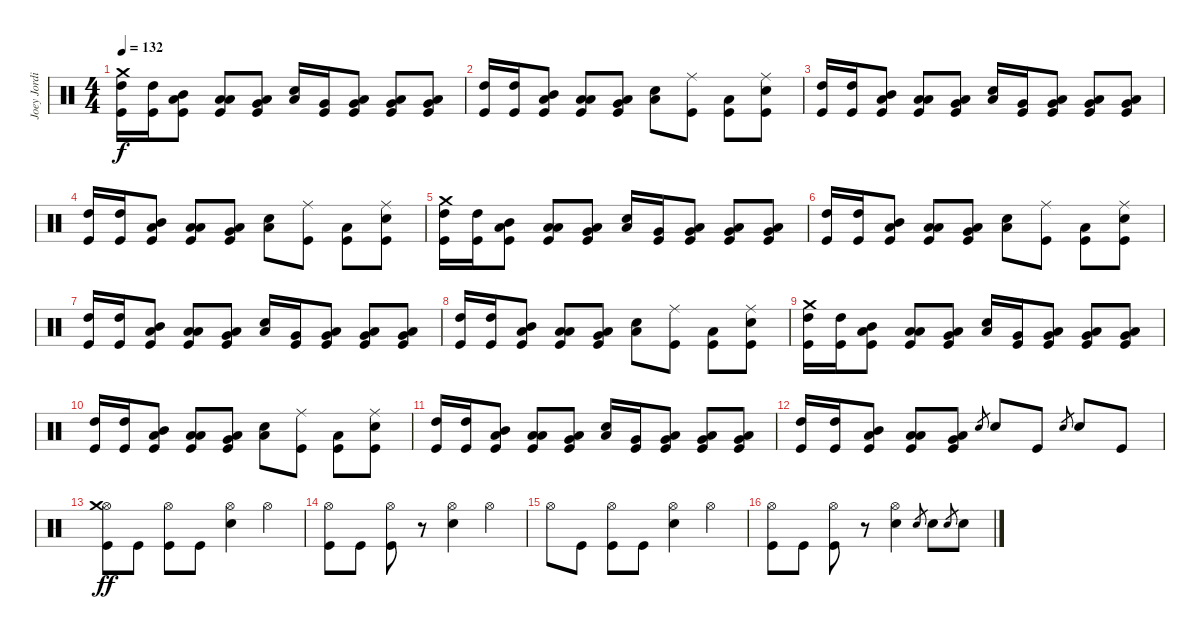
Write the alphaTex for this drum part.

\track ("Joey Jordison" "Joey Jordi") {instrument percussion}
\staff {score}
\articulation defaults
\ts (4 4)
\tempo 132
\clef neutral
\ks c
("Kick (hit)" "High Tom (hit)" "Crash medium (hit)").16{dy f} ("Kick (hit)" "High Tom (hit)").16 ("Kick (hit)" "Low Floor Tom (hit)" "Mid Tom (hit)").8 ("Kick (hit)" "Low Floor Tom (hit)" "Low Tom (hit)").8 ("Kick (hit)" "Low Floor Tom (hit)" "Very Low Tom (hit)").8 ("Snare (hit) 2" "Low Floor Tom (hit)").16 ("Kick (hit)" "Very Low Tom (hit)").16 ("Kick (hit)" "Low Floor Tom (hit)" "Very Low Tom (hit)").8 ("Kick (hit)" "Low Floor Tom (hit)" "Very Low Tom (hit)").8 ("Kick (hit)" "Low Floor Tom (hit)" "Very Low Tom (hit)").8 |
("Kick (hit)" "High Tom (hit)").16 ("Kick (hit)" "High Tom (hit)").16 ("Kick (hit)" "Low Floor Tom (hit)" "Mid Tom (hit)").8 ("Kick (hit)" "Low Floor Tom (hit)" "Low Tom (hit)").8 ("Kick (hit)" "Low Floor Tom (hit)" "Very Low Tom (hit)").8 ("Snare (hit) 2" "Low Floor Tom (hit)").8 ("Kick (hit)" "Ride (middle)").8 ("Kick (hit)" "Low Floor Tom (hit)").8 ("Kick (hit)" "Snare (hit) 2" "Ride (middle)").8 |
("Kick (hit)" "High Tom (hit)").16 ("Kick (hit)" "High Tom (hit)").16 ("Kick (hit)" "Low Floor Tom (hit)" "Mid Tom (hit)").8 ("Kick (hit)" "Low Floor Tom (hit)" "Low Tom (hit)").8 ("Kick (hit)" "Low Floor Tom (hit)" "Very Low Tom (hit)").8 ("Snare (hit) 2" "Low Floor Tom (hit)").16 ("Kick (hit)" "Very Low Tom (hit)").16 ("Kick (hit)" "Low Floor Tom (hit)" "Very Low Tom (hit)").8 ("Kick (hit)" "Low Floor Tom (hit)" "Very Low Tom (hit)").8 ("Kick (hit)" "Low Floor Tom (hit)" "Very Low Tom (hit)").8 |
("Kick (hit)" "High Tom (hit)").16 ("Kick (hit)" "High Tom (hit)").16 ("Kick (hit)" "Low Floor Tom (hit)" "Mid Tom (hit)").8 ("Kick (hit)" "Low Floor Tom (hit)" "Low Tom (hit)").8 ("Kick (hit)" "Low Floor Tom (hit)" "Very Low Tom (hit)").8 ("Snare (hit) 2" "Low Floor Tom (hit)").8 ("Kick (hit)" "Ride (middle)").8 ("Kick (hit)" "Low Floor Tom (hit)").8 ("Kick (hit)" "Snare (hit) 2" "Ride (middle)").8 |
("Kick (hit)" "High Tom (hit)" "Crash medium (hit)").16 ("Kick (hit)" "High Tom (hit)").16 ("Kick (hit)" "Low Floor Tom (hit)" "Mid Tom (hit)").8 ("Kick (hit)" "Low Floor Tom (hit)" "Low Tom (hit)").8 ("Kick (hit)" "Low Floor Tom (hit)" "Very Low Tom (hit)").8 ("Snare (hit) 2" "Low Floor Tom (hit)").16 ("Kick (hit)" "Very Low Tom (hit)").16 ("Kick (hit)" "Low Floor Tom (hit)" "Very Low Tom (hit)").8 ("Kick (hit)" "Low Floor Tom (hit)" "Very Low Tom (hit)").8 ("Kick (hit)" "Low Floor Tom (hit)" "Very Low Tom (hit)").8 |
("Kick (hit)" "High Tom (hit)").16 ("Kick (hit)" "High Tom (hit)").16 ("Kick (hit)" "Low Floor Tom (hit)" "Mid Tom (hit)").8 ("Kick (hit)" "Low Floor Tom (hit)" "Low Tom (hit)").8 ("Kick (hit)" "Low Floor Tom (hit)" "Very Low Tom (hit)").8 ("Snare (hit) 2" "Low Floor Tom (hit)").8 ("Kick (hit)" "Ride (middle)").8 ("Kick (hit)" "Low Floor Tom (hit)").8 ("Kick (hit)" "Snare (hit) 2" "Ride (middle)").8 |
("Kick (hit)" "High Tom (hit)").16 ("Kick (hit)" "High Tom (hit)").16 ("Kick (hit)" "Low Floor Tom (hit)" "Mid Tom (hit)").8 ("Kick (hit)" "Low Floor Tom (hit)" "Low Tom (hit)").8 ("Kick (hit)" "Low Floor Tom (hit)" "Very Low Tom (hit)").8 ("Snare (hit) 2" "Low Floor Tom (hit)").16 ("Kick (hit)" "Very Low Tom (hit)").16 ("Kick (hit)" "Low Floor Tom (hit)" "Very Low Tom (hit)").8 ("Kick (hit)" "Low Floor Tom (hit)" "Very Low Tom (hit)").8 ("Kick (hit)" "Low Floor Tom (hit)" "Very Low Tom (hit)").8 |
("Kick (hit)" "High Tom (hit)").16 ("Kick (hit)" "High Tom (hit)").16 ("Kick (hit)" "Low Floor Tom (hit)" "Mid Tom (hit)").8 ("Kick (hit)" "Low Floor Tom (hit)" "Low Tom (hit)").8 ("Kick (hit)" "Low Floor Tom (hit)" "Very Low Tom (hit)").8 ("Snare (hit) 2" "Low Floor Tom (hit)").8 ("Kick (hit)" "Ride (middle)").8 ("Kick (hit)" "Low Floor Tom (hit)").8 ("Kick (hit)" "Snare (hit) 2" "Ride (middle)").8 |
("Kick (hit)" "High Tom (hit)" "Crash medium (hit)").16 ("Kick (hit)" "High Tom (hit)").16 ("Kick (hit)" "Low Floor Tom (hit)" "Mid Tom (hit)").8 ("Kick (hit)" "Low Floor Tom (hit)" "Low Tom (hit)").8 ("Kick (hit)" "Low Floor Tom (hit)" "Very Low Tom (hit)").8 ("Snare (hit) 2" "Low Floor Tom (hit)").16 ("Kick (hit)" "Very Low Tom (hit)").16 ("Kick (hit)" "Low Floor Tom (hit)" "Very Low Tom (hit)").8 ("Kick (hit)" "Low Floor Tom (hit)" "Very Low Tom (hit)").8 ("Kick (hit)" "Low Floor Tom (hit)" "Very Low Tom (hit)").8 |
("Kick (hit)" "High Tom (hit)").16 ("Kick (hit)" "High Tom (hit)").16 ("Kick (hit)" "Low Floor Tom (hit)" "Mid Tom (hit)").8 ("Kick (hit)" "Low Floor Tom (hit)" "Low Tom (hit)").8 ("Kick (hit)" "Low Floor Tom (hit)" "Very Low Tom (hit)").8 ("Snare (hit) 2" "Low Floor Tom (hit)").8 ("Kick (hit)" "Ride (middle)").8 ("Kick (hit)" "Low Floor Tom (hit)").8 ("Kick (hit)" "Snare (hit) 2" "Ride (middle)").8 |
("Kick (hit)" "High Tom (hit)").16 ("Kick (hit)" "High Tom (hit)").16 ("Kick (hit)" "Low Floor Tom (hit)" "Mid Tom (hit)").8 ("Kick (hit)" "Low Floor Tom (hit)" "Low Tom (hit)").8 ("Kick (hit)" "Low Floor Tom (hit)" "Very Low Tom (hit)").8 ("Snare (hit) 2" "Low Floor Tom (hit)").16 ("Kick (hit)" "Very Low Tom (hit)").16 ("Kick (hit)" "Low Floor Tom (hit)" "Very Low Tom (hit)").8 ("Kick (hit)" "Low Floor Tom (hit)" "Very Low Tom (hit)").8 ("Kick (hit)" "Low Floor Tom (hit)" "Very Low Tom (hit)").8 |
("Kick (hit)" "High Tom (hit)").16 ("Kick (hit)" "High Tom (hit)").16 ("Kick (hit)" "Low Floor Tom (hit)" "Mid Tom (hit)").8 ("Kick (hit)" "Low Floor Tom (hit)" "Low Tom (hit)").8 ("Kick (hit)" "Low Floor Tom (hit)" "Very Low Tom (hit)").8 "Snare (hit)".8{gr} "Snare (hit) 2".8 "Kick (hit)".8 "Snare (hit)".8{gr} "Snare (hit) 2".8 "Kick (hit)".8 |
("Kick (hit)" "Hi-Hat (open)" "Crash medium (hit)").8{dy ff} "Kick (hit)".8 ("Kick (hit)" "Hi-Hat (open)").8 "Kick (hit)".8 ("Snare (hit) 2" "Hi-Hat (open)").4 "Hi-Hat (open)".4 |
("Kick (hit)" "Hi-Hat (open)").8 "Kick (hit)".8 ("Hi-Hat (open)" "Kick (hit)").8 r.8 ("Snare (hit) 2" "Hi-Hat (open)").4 "Hi-Hat (open)".4 |
"Hi-Hat (open)".8 "Kick (hit)".8 ("Kick (hit)" "Hi-Hat (open)").8 "Kick (hit)".8 ("Snare (hit) 2" "Hi-Hat (open)").4 "Hi-Hat (open)".4 |
("Kick (hit)" "Hi-Hat (open)").8 "Kick (hit)".8 ("Hi-Hat (open)" "Kick (hit)").8 r.8 ("Hi-Hat (open)" "Snare (hit) 2").4 "Snare (hit)".8{gr} "Snare (hit) 2".8 "Snare (hit)".8{gr} "Snare (hit) 2".8
